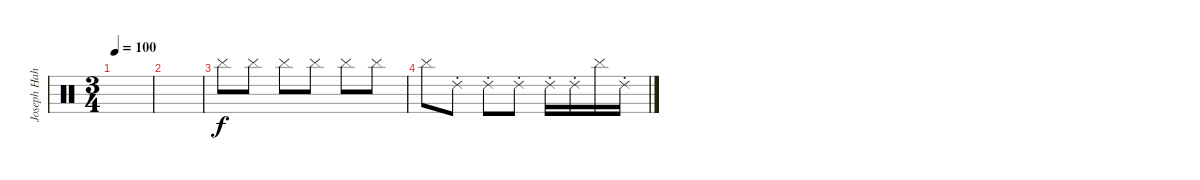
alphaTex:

\track ("Joseph Hahn (Sampler 3)" "Joseph Hah") {instrument percussion}
\staff {score}
\articulation defaults
\ts (3 4)
\tempo 100
\clef neutral
\ks c
|
|
"Cymbal (hit)".8 "Cymbal (hit)".8 "Cymbal (hit)".8 "Cymbal (hit)".8 "Cymbal (hit)".8 "Cymbal (hit)".8 |
"Cymbal (hit)".8 "Ride (choke) 2".8 "Ride (choke) 2".8 "Ride (choke) 2".8 "Ride (choke) 2".16 "Ride (choke) 2".16 "Cymbal (hit)".16 "Ride (choke) 2".16
